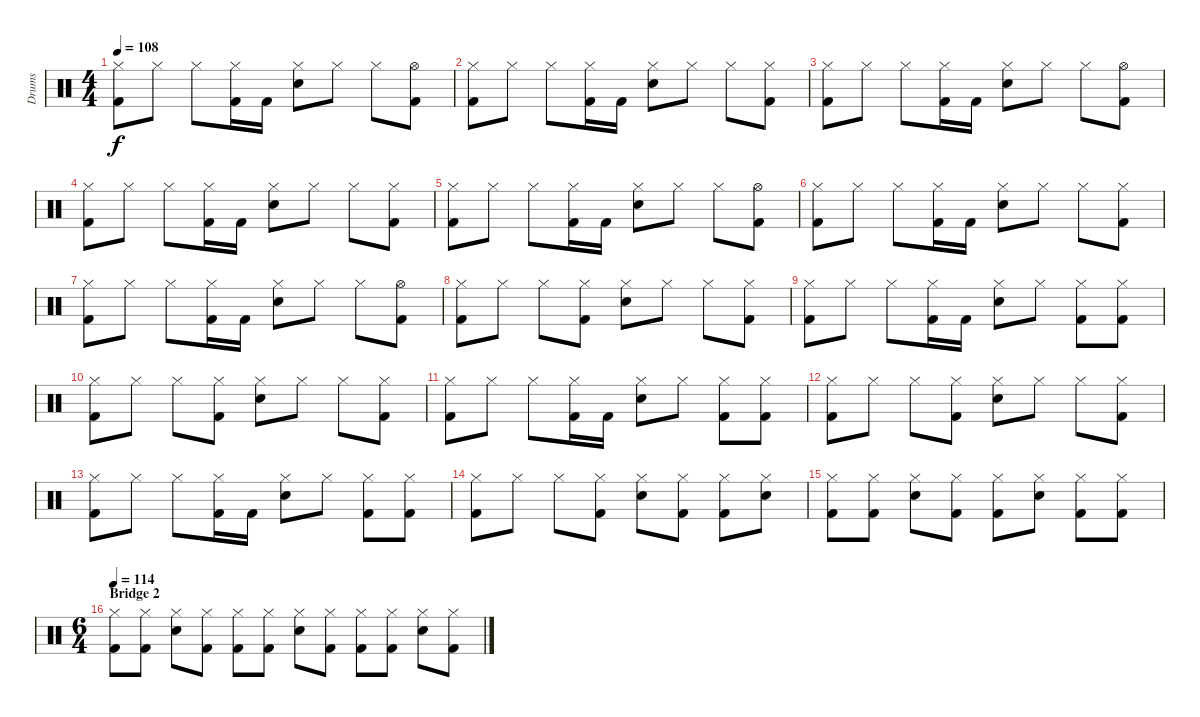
\track ("Drums" "Drums") {instrument percussion}
\staff {score}
\articulation defaults
\ts (4 4)
\tempo 108
\clef neutral
\ks c
("Hi-Hat (closed)" "Kick (hit) 2").8{dy f} "Hi-Hat (closed)".8 "Hi-Hat (closed)".8 ("Hi-Hat (closed)" "Kick (hit) 2").16 "Kick (hit) 2".16 ("Hi-Hat (closed)" "Snare (hit) 2").8 "Hi-Hat (closed)".8 "Hi-Hat (closed)".8 ("Hi-Hat (open)" "Kick (hit) 2").8 |
("Hi-Hat (closed)" "Kick (hit) 2").8 "Hi-Hat (closed)".8 "Hi-Hat (closed)".8 ("Hi-Hat (closed)" "Kick (hit) 2").16 "Kick (hit) 2".16 ("Hi-Hat (closed)" "Snare (hit) 2").8 "Hi-Hat (closed)".8 "Hi-Hat (closed)".8 ("Hi-Hat (closed)" "Kick (hit) 2").8 |
("Hi-Hat (closed)" "Kick (hit) 2").8 "Hi-Hat (closed)".8 "Hi-Hat (closed)".8 ("Hi-Hat (closed)" "Kick (hit) 2").16 "Kick (hit) 2".16 ("Hi-Hat (closed)" "Snare (hit) 2").8 "Hi-Hat (closed)".8 "Hi-Hat (closed)".8 ("Hi-Hat (open)" "Kick (hit) 2").8 |
("Hi-Hat (closed)" "Kick (hit) 2").8 "Hi-Hat (closed)".8 "Hi-Hat (closed)".8 ("Hi-Hat (closed)" "Kick (hit) 2").16 "Kick (hit) 2".16 ("Hi-Hat (closed)" "Snare (hit) 2").8 "Hi-Hat (closed)".8 "Hi-Hat (closed)".8 ("Hi-Hat (closed)" "Kick (hit) 2").8 |
("Hi-Hat (closed)" "Kick (hit) 2").8 "Hi-Hat (closed)".8 "Hi-Hat (closed)".8 ("Hi-Hat (closed)" "Kick (hit) 2").16 "Kick (hit) 2".16 ("Hi-Hat (closed)" "Snare (hit) 2").8 "Hi-Hat (closed)".8 "Hi-Hat (closed)".8 ("Hi-Hat (open)" "Kick (hit) 2").8 |
("Hi-Hat (closed)" "Kick (hit) 2").8 "Hi-Hat (closed)".8 "Hi-Hat (closed)".8 ("Hi-Hat (closed)" "Kick (hit) 2").16 "Kick (hit) 2".16 ("Hi-Hat (closed)" "Snare (hit) 2").8 "Hi-Hat (closed)".8 "Hi-Hat (closed)".8 ("Hi-Hat (closed)" "Kick (hit) 2").8 |
("Hi-Hat (closed)" "Kick (hit) 2").8 "Hi-Hat (closed)".8 "Hi-Hat (closed)".8 ("Hi-Hat (closed)" "Kick (hit) 2").16 "Kick (hit) 2".16 ("Hi-Hat (closed)" "Snare (hit) 2").8 "Hi-Hat (closed)".8 "Hi-Hat (closed)".8 ("Hi-Hat (open)" "Kick (hit) 2").8 |
("Hi-Hat (closed)" "Kick (hit) 2").8 "Hi-Hat (closed)".8 "Hi-Hat (closed)".8 ("Hi-Hat (closed)" "Kick (hit) 2").8 ("Hi-Hat (closed)" "Snare (hit) 2").8 "Hi-Hat (closed)".8 "Hi-Hat (closed)".8 ("Hi-Hat (closed)" "Kick (hit) 2").8 |
("Hi-Hat (closed)" "Kick (hit) 2").8 "Hi-Hat (closed)".8 "Hi-Hat (closed)".8 ("Hi-Hat (closed)" "Kick (hit) 2").16 "Kick (hit) 2".16 ("Hi-Hat (closed)" "Snare (hit) 2").8 "Hi-Hat (closed)".8 ("Hi-Hat (closed)" "Kick (hit) 2").8 ("Hi-Hat (closed)" "Kick (hit) 2").8 |
("Hi-Hat (closed)" "Kick (hit) 2").8 "Hi-Hat (closed)".8 "Hi-Hat (closed)".8 ("Hi-Hat (closed)" "Kick (hit) 2").8 ("Hi-Hat (closed)" "Snare (hit) 2").8 "Hi-Hat (closed)".8 "Hi-Hat (closed)".8 ("Hi-Hat (closed)" "Kick (hit) 2").8 |
("Hi-Hat (closed)" "Kick (hit) 2").8 "Hi-Hat (closed)".8 "Hi-Hat (closed)".8 ("Hi-Hat (closed)" "Kick (hit) 2").16 "Kick (hit) 2".16 ("Hi-Hat (closed)" "Snare (hit) 2").8 "Hi-Hat (closed)".8 ("Hi-Hat (closed)" "Kick (hit) 2").8 ("Hi-Hat (closed)" "Kick (hit) 2").8 |
("Hi-Hat (closed)" "Kick (hit) 2").8 "Hi-Hat (closed)".8 "Hi-Hat (closed)".8 ("Hi-Hat (closed)" "Kick (hit) 2").8 ("Hi-Hat (closed)" "Snare (hit) 2").8 "Hi-Hat (closed)".8 "Hi-Hat (closed)".8 ("Hi-Hat (closed)" "Kick (hit) 2").8 |
("Hi-Hat (closed)" "Kick (hit) 2").8 "Hi-Hat (closed)".8 "Hi-Hat (closed)".8 ("Hi-Hat (closed)" "Kick (hit) 2").16 "Kick (hit) 2".16 ("Hi-Hat (closed)" "Snare (hit) 2").8 "Hi-Hat (closed)".8 ("Hi-Hat (closed)" "Kick (hit) 2").8 ("Hi-Hat (closed)" "Kick (hit) 2").8 |
("Hi-Hat (closed)" "Kick (hit) 2").8 "Hi-Hat (closed)".8 "Hi-Hat (closed)".8 ("Hi-Hat (closed)" "Kick (hit) 2").8 ("Hi-Hat (closed)" "Snare (hit) 2").8 ("Hi-Hat (closed)" "Kick (hit) 2").8 ("Hi-Hat (closed)" "Kick (hit) 2").8 ("Hi-Hat (closed)" "Snare (hit) 2").8 |
("Hi-Hat (closed)" "Kick (hit) 2").8 ("Hi-Hat (closed)" "Kick (hit) 2").8 ("Hi-Hat (closed)" "Snare (hit) 2").8 ("Hi-Hat (closed)" "Kick (hit) 2").8 ("Hi-Hat (closed)" "Kick (hit) 2").8 ("Hi-Hat (closed)" "Snare (hit) 2").8 ("Hi-Hat (closed)" "Kick (hit) 2").8 ("Hi-Hat (closed)" "Kick (hit) 2").8 |
\ts (6 4)
\section ("" "Bridge 2")
\tempo 114
("Hi-Hat (closed)" "Kick (hit) 2").8 ("Hi-Hat (closed)" "Kick (hit) 2").8 ("Hi-Hat (closed)" "Snare (hit) 2").8 ("Hi-Hat (closed)" "Kick (hit) 2").8 ("Hi-Hat (closed)" "Kick (hit) 2").8 ("Hi-Hat (closed)" "Kick (hit) 2").8 ("Hi-Hat (closed)" "Snare (hit) 2").8 ("Hi-Hat (closed)" "Kick (hit) 2").8 ("Hi-Hat (closed)" "Kick (hit) 2").8 ("Hi-Hat (closed)" "Kick (hit) 2").8 ("Hi-Hat (closed)" "Snare (hit) 2").8 ("Hi-Hat (closed)" "Kick (hit) 2").8
